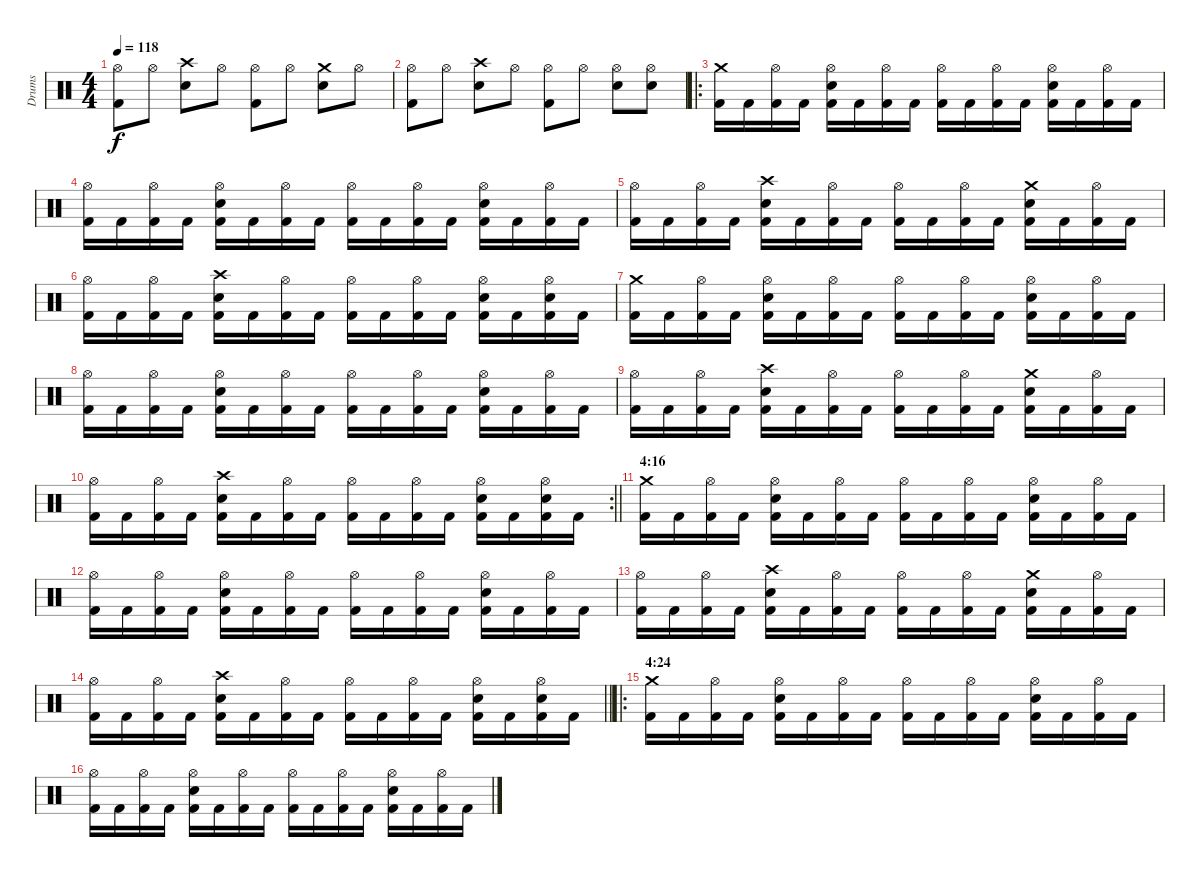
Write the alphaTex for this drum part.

\track ("Drums" "Drums") {instrument percussion}
\staff {score}
\articulation defaults
\ts (4 4)
\tempo 118
\clef neutral
\ks c
("Hi-Hat (open)" "Kick (hit) 2").8{dy f} "Hi-Hat (open)".8 ("Crash high (hit)" "Electric Snare (hit)").8 "Hi-Hat (open)".8 ("Hi-Hat (open)" "Kick (hit) 2").8 "Hi-Hat (open)".8 ("Crash medium (hit)" "Electric Snare (hit)").8 "Hi-Hat (open)".8 |
("Hi-Hat (open)" "Kick (hit) 2").8 "Hi-Hat (open)".8 ("Crash high (hit)" "Electric Snare (hit)").8 "Hi-Hat (open)".8 ("Hi-Hat (open)" "Kick (hit) 2").8 "Hi-Hat (open)".8 ("Hi-Hat (open)" "Electric Snare (hit)").8 ("Hi-Hat (open)" "Electric Snare (hit)").8 |
\ro
("Crash medium (hit)" "Kick (hit) 2").16 "Kick (hit) 2".16 ("Hi-Hat (open)" "Kick (hit) 2").16 "Kick (hit) 2".16 ("Hi-Hat (open)" "Electric Snare (hit)" "Kick (hit) 2").16 "Kick (hit) 2".16 ("Hi-Hat (open)" "Kick (hit) 2").16 "Kick (hit) 2".16 ("Hi-Hat (open)" "Kick (hit) 2").16 "Kick (hit) 2".16 ("Hi-Hat (open)" "Kick (hit) 2").16 "Kick (hit) 2".16 ("Hi-Hat (open)" "Electric Snare (hit)" "Kick (hit) 2").16 "Kick (hit) 2".16 ("Hi-Hat (open)" "Kick (hit) 2").16 "Kick (hit) 2".16 |
("Hi-Hat (open)" "Kick (hit) 2").16 "Kick (hit) 2".16 ("Hi-Hat (open)" "Kick (hit) 2").16 "Kick (hit) 2".16 ("Hi-Hat (open)" "Electric Snare (hit)" "Kick (hit) 2").16 "Kick (hit) 2".16 ("Hi-Hat (open)" "Kick (hit) 2").16 "Kick (hit) 2".16 ("Hi-Hat (open)" "Kick (hit) 2").16 "Kick (hit) 2".16 ("Hi-Hat (open)" "Kick (hit) 2").16 "Kick (hit) 2".16 ("Hi-Hat (open)" "Electric Snare (hit)" "Kick (hit) 2").16 "Kick (hit) 2".16 ("Hi-Hat (open)" "Kick (hit) 2").16 "Kick (hit) 2".16 |
("Hi-Hat (open)" "Kick (hit) 2").16 "Kick (hit) 2".16 ("Hi-Hat (open)" "Kick (hit) 2").16 "Kick (hit) 2".16 ("Crash high (hit)" "Electric Snare (hit)" "Kick (hit) 2").16 "Kick (hit) 2".16 ("Hi-Hat (open)" "Kick (hit) 2").16 "Kick (hit) 2".16 ("Hi-Hat (open)" "Kick (hit) 2").16 "Kick (hit) 2".16 ("Hi-Hat (open)" "Kick (hit) 2").16 "Kick (hit) 2".16 ("Crash medium (hit)" "Electric Snare (hit)" "Kick (hit) 2").16 "Kick (hit) 2".16 ("Hi-Hat (open)" "Kick (hit) 2").16 "Kick (hit) 2".16 |
("Hi-Hat (open)" "Kick (hit) 2").16 "Kick (hit) 2".16 ("Hi-Hat (open)" "Kick (hit) 2").16 "Kick (hit) 2".16 ("Crash high (hit)" "Electric Snare (hit)" "Kick (hit) 2").16 "Kick (hit) 2".16 ("Hi-Hat (open)" "Kick (hit) 2").16 "Kick (hit) 2".16 ("Hi-Hat (open)" "Kick (hit) 2").16 "Kick (hit) 2".16 ("Hi-Hat (open)" "Kick (hit) 2").16 "Kick (hit) 2".16 ("Hi-Hat (open)" "Electric Snare (hit)" "Kick (hit) 2").16 "Kick (hit) 2".16 ("Hi-Hat (open)" "Electric Snare (hit)" "Kick (hit) 2").16 "Kick (hit) 2".16 |
("Crash medium (hit)" "Kick (hit) 2").16 "Kick (hit) 2".16 ("Hi-Hat (open)" "Kick (hit) 2").16 "Kick (hit) 2".16 ("Hi-Hat (open)" "Electric Snare (hit)" "Kick (hit) 2").16 "Kick (hit) 2".16 ("Hi-Hat (open)" "Kick (hit) 2").16 "Kick (hit) 2".16 ("Hi-Hat (open)" "Kick (hit) 2").16 "Kick (hit) 2".16 ("Hi-Hat (open)" "Kick (hit) 2").16 "Kick (hit) 2".16 ("Hi-Hat (open)" "Electric Snare (hit)" "Kick (hit) 2").16 "Kick (hit) 2".16 ("Hi-Hat (open)" "Kick (hit) 2").16 "Kick (hit) 2".16 |
("Hi-Hat (open)" "Kick (hit) 2").16 "Kick (hit) 2".16 ("Hi-Hat (open)" "Kick (hit) 2").16 "Kick (hit) 2".16 ("Hi-Hat (open)" "Electric Snare (hit)" "Kick (hit) 2").16 "Kick (hit) 2".16 ("Hi-Hat (open)" "Kick (hit) 2").16 "Kick (hit) 2".16 ("Hi-Hat (open)" "Kick (hit) 2").16 "Kick (hit) 2".16 ("Hi-Hat (open)" "Kick (hit) 2").16 "Kick (hit) 2".16 ("Hi-Hat (open)" "Electric Snare (hit)" "Kick (hit) 2").16 "Kick (hit) 2".16 ("Hi-Hat (open)" "Kick (hit) 2").16 "Kick (hit) 2".16 |
("Hi-Hat (open)" "Kick (hit) 2").16 "Kick (hit) 2".16 ("Hi-Hat (open)" "Kick (hit) 2").16 "Kick (hit) 2".16 ("Crash high (hit)" "Electric Snare (hit)" "Kick (hit) 2").16 "Kick (hit) 2".16 ("Hi-Hat (open)" "Kick (hit) 2").16 "Kick (hit) 2".16 ("Hi-Hat (open)" "Kick (hit) 2").16 "Kick (hit) 2".16 ("Hi-Hat (open)" "Kick (hit) 2").16 "Kick (hit) 2".16 ("Crash medium (hit)" "Electric Snare (hit)" "Kick (hit) 2").16 "Kick (hit) 2".16 ("Hi-Hat (open)" "Kick (hit) 2").16 "Kick (hit) 2".16 |
\rc 2
\barLineRight lightlight
("Hi-Hat (open)" "Kick (hit) 2").16 "Kick (hit) 2".16 ("Hi-Hat (open)" "Kick (hit) 2").16 "Kick (hit) 2".16 ("Crash high (hit)" "Electric Snare (hit)" "Kick (hit) 2").16 "Kick (hit) 2".16 ("Hi-Hat (open)" "Kick (hit) 2").16 "Kick (hit) 2".16 ("Hi-Hat (open)" "Kick (hit) 2").16 "Kick (hit) 2".16 ("Hi-Hat (open)" "Kick (hit) 2").16 "Kick (hit) 2".16 ("Hi-Hat (open)" "Electric Snare (hit)" "Kick (hit) 2").16 "Kick (hit) 2".16 ("Hi-Hat (open)" "Electric Snare (hit)" "Kick (hit) 2").16 "Kick (hit) 2".16 |
\section ("" "4:16")
("Crash medium (hit)" "Kick (hit) 2").16 "Kick (hit) 2".16 ("Hi-Hat (open)" "Kick (hit) 2").16 "Kick (hit) 2".16 ("Hi-Hat (open)" "Electric Snare (hit)" "Kick (hit) 2").16 "Kick (hit) 2".16 ("Hi-Hat (open)" "Kick (hit) 2").16 "Kick (hit) 2".16 ("Hi-Hat (open)" "Kick (hit) 2").16 "Kick (hit) 2".16 ("Hi-Hat (open)" "Kick (hit) 2").16 "Kick (hit) 2".16 ("Hi-Hat (open)" "Electric Snare (hit)" "Kick (hit) 2").16 "Kick (hit) 2".16 ("Hi-Hat (open)" "Kick (hit) 2").16 "Kick (hit) 2".16 |
("Hi-Hat (open)" "Kick (hit) 2").16 "Kick (hit) 2".16 ("Hi-Hat (open)" "Kick (hit) 2").16 "Kick (hit) 2".16 ("Hi-Hat (open)" "Electric Snare (hit)" "Kick (hit) 2").16 "Kick (hit) 2".16 ("Hi-Hat (open)" "Kick (hit) 2").16 "Kick (hit) 2".16 ("Hi-Hat (open)" "Kick (hit) 2").16 "Kick (hit) 2".16 ("Hi-Hat (open)" "Kick (hit) 2").16 "Kick (hit) 2".16 ("Hi-Hat (open)" "Electric Snare (hit)" "Kick (hit) 2").16 "Kick (hit) 2".16 ("Hi-Hat (open)" "Kick (hit) 2").16 "Kick (hit) 2".16 |
("Hi-Hat (open)" "Kick (hit) 2").16 "Kick (hit) 2".16 ("Hi-Hat (open)" "Kick (hit) 2").16 "Kick (hit) 2".16 ("Crash high (hit)" "Electric Snare (hit)" "Kick (hit) 2").16 "Kick (hit) 2".16 ("Hi-Hat (open)" "Kick (hit) 2").16 "Kick (hit) 2".16 ("Hi-Hat (open)" "Kick (hit) 2").16 "Kick (hit) 2".16 ("Hi-Hat (open)" "Kick (hit) 2").16 "Kick (hit) 2".16 ("Crash medium (hit)" "Electric Snare (hit)" "Kick (hit) 2").16 "Kick (hit) 2".16 ("Hi-Hat (open)" "Kick (hit) 2").16 "Kick (hit) 2".16 |
\barLineRight lightlight
("Hi-Hat (open)" "Kick (hit) 2").16 "Kick (hit) 2".16 ("Hi-Hat (open)" "Kick (hit) 2").16 "Kick (hit) 2".16 ("Crash high (hit)" "Electric Snare (hit)" "Kick (hit) 2").16 "Kick (hit) 2".16 ("Hi-Hat (open)" "Kick (hit) 2").16 "Kick (hit) 2".16 ("Hi-Hat (open)" "Kick (hit) 2").16 "Kick (hit) 2".16 ("Hi-Hat (open)" "Kick (hit) 2").16 "Kick (hit) 2".16 ("Hi-Hat (open)" "Electric Snare (hit)" "Kick (hit) 2").16 "Kick (hit) 2".16 ("Hi-Hat (open)" "Electric Snare (hit)" "Kick (hit) 2").16 "Kick (hit) 2".16 |
\ro
\section ("" "4:24")
("Crash medium (hit)" "Kick (hit) 2").16 "Kick (hit) 2".16 ("Hi-Hat (open)" "Kick (hit) 2").16 "Kick (hit) 2".16 ("Hi-Hat (open)" "Electric Snare (hit)" "Kick (hit) 2").16 "Kick (hit) 2".16 ("Hi-Hat (open)" "Kick (hit) 2").16 "Kick (hit) 2".16 ("Hi-Hat (open)" "Kick (hit) 2").16 "Kick (hit) 2".16 ("Hi-Hat (open)" "Kick (hit) 2").16 "Kick (hit) 2".16 ("Hi-Hat (open)" "Electric Snare (hit)" "Kick (hit) 2").16 "Kick (hit) 2".16 ("Hi-Hat (open)" "Kick (hit) 2").16 "Kick (hit) 2".16 |
("Hi-Hat (open)" "Kick (hit) 2").16 "Kick (hit) 2".16 ("Hi-Hat (open)" "Kick (hit) 2").16 "Kick (hit) 2".16 ("Hi-Hat (open)" "Electric Snare (hit)" "Kick (hit) 2").16 "Kick (hit) 2".16 ("Hi-Hat (open)" "Kick (hit) 2").16 "Kick (hit) 2".16 ("Hi-Hat (open)" "Kick (hit) 2").16 "Kick (hit) 2".16 ("Hi-Hat (open)" "Kick (hit) 2").16 "Kick (hit) 2".16 ("Hi-Hat (open)" "Electric Snare (hit)" "Kick (hit) 2").16 "Kick (hit) 2".16 ("Hi-Hat (open)" "Kick (hit) 2").16 "Kick (hit) 2".16
